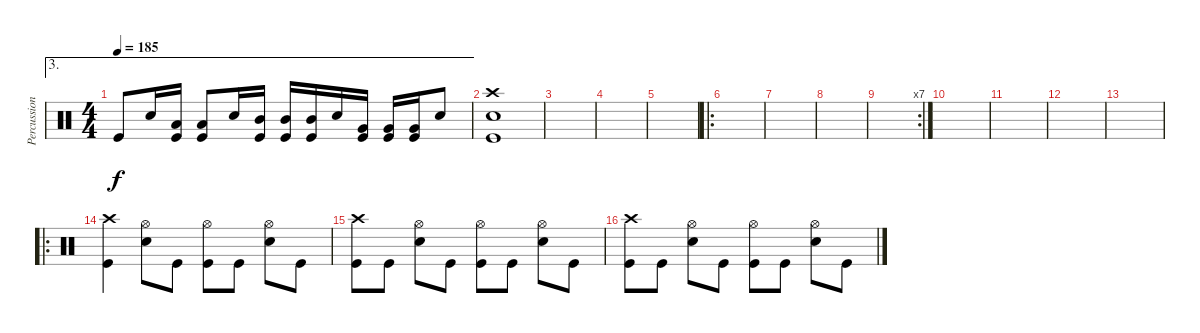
\track ("Percussions" "Percussion") {instrument percussion}
\staff {score}
\articulation defaults
\ae 3
\ts (4 4)
\tempo 185
\clef neutral
\ks c "Kick (hit)".8{dy f} "Snare (hit) 2".16
("Low Tom (hit)" "Kick (hit)").16 ("Low Tom (hit)" "Kick (hit)").8 "Snare (hit) 2".16 ("Mid Tom (hit)" "Kick (hit)").16 ("Mid Tom (hit)" "Kick (hit)").16 ("Mid Tom (hit)" "Kick (hit)").16 "Snare (hit) 2".16 ("Very Low Tom (hit)" "Kick (hit)").16 ("Very Low Tom (hit)" "Kick (hit)").16 ("Very Low Tom (hit)" "Kick (hit)").16 "Snare (hit) 2".8 |
("Crash high (hit)" "Snare (hit) 2" "Kick (hit)").1 |
|
|
|
\ro
|
|
|
\rc 7
|
|
|
|
|
\ro
("Crash high (hit)" "Kick (hit)").4 ("Hi-Hat (open)" "Snare (hit) 2").8 "Kick (hit)".8 ("Hi-Hat (open)" "Kick (hit)").8 "Kick (hit)".8 ("Hi-Hat (open)" "Snare (hit) 2").8 "Kick (hit)".8 |
("Crash high (hit)" "Kick (hit)").8 "Kick (hit)".8 ("Hi-Hat (open)" "Snare (hit) 2").8 "Kick (hit)".8 ("Hi-Hat (open)" "Kick (hit)").8 "Kick (hit)".8 ("Hi-Hat (open)" "Snare (hit) 2").8 "Kick (hit)".8 |
("Crash high (hit)" "Kick (hit)").8 "Kick (hit)".8 ("Hi-Hat (open)" "Snare (hit) 2").8 "Kick (hit)".8 ("Hi-Hat (open)" "Kick (hit)").8 "Kick (hit)".8 ("Hi-Hat (open)" "Snare (hit) 2").8 "Kick (hit)".8
